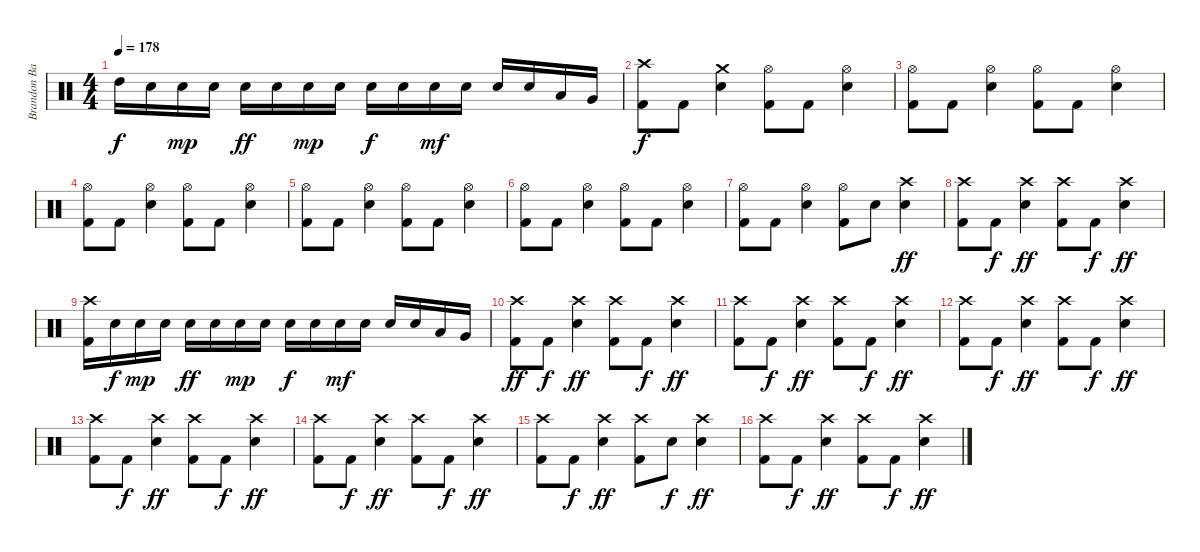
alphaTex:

\track ("Brandon Barnes - Drums" "Brandon Ba") {instrument percussion}
\staff {score}
\articulation defaults
\ts (4 4)
\tempo 178
\clef neutral
\ks c "High Tom (hit)".16{dy f} "Snare (hit) 2".16 "Snare (hit) 2".16{dy mp} "Snare (hit) 2".16 "Snare (hit) 2".16{dy ff} "Snare (hit) 2".16 "Snare (hit) 2".16{dy mp} "Snare (hit) 2".16 "Snare (hit) 2".16{dy f} "Snare (hit) 2".16 "Snare (hit) 2".16{dy mf} "Snare (hit) 2".16 "Snare (hit) 2".16 "Snare (hit) 2".16 "Low Tom (hit)".16 "Very Low Tom (hit)".16
|
("Crash high (hit)" "Kick (hit) 2").8{dy f} "Kick (hit) 2".8 ("Snare (hit) 2" "Crash medium (hit)").4 ("Hi-Hat (open)" "Kick (hit) 2").8 "Kick (hit) 2".8 ("Snare (hit) 2" "Hi-Hat (open)").4 |
("Hi-Hat (open)" "Kick (hit) 2").8 "Kick (hit) 2".8 ("Snare (hit) 2" "Hi-Hat (open)").4 ("Hi-Hat (open)" "Kick (hit) 2").8 "Kick (hit) 2".8 ("Snare (hit) 2" "Hi-Hat (open)").4 |
("Hi-Hat (open)" "Kick (hit) 2").8 "Kick (hit) 2".8 ("Snare (hit) 2" "Hi-Hat (open)").4 ("Hi-Hat (open)" "Kick (hit) 2").8 "Kick (hit) 2".8 ("Snare (hit) 2" "Hi-Hat (open)").4 |
("Hi-Hat (open)" "Kick (hit) 2").8 "Kick (hit) 2".8 ("Snare (hit) 2" "Hi-Hat (open)").4 ("Hi-Hat (open)" "Kick (hit) 2").8 "Kick (hit) 2".8 ("Snare (hit) 2" "Hi-Hat (open)").4 |
("Hi-Hat (open)" "Kick (hit) 2").8 "Kick (hit) 2".8 ("Snare (hit) 2" "Hi-Hat (open)").4 ("Hi-Hat (open)" "Kick (hit) 2").8 "Kick (hit) 2".8 ("Snare (hit) 2" "Hi-Hat (open)").4 |
("Hi-Hat (open)" "Kick (hit) 2").8 "Kick (hit) 2".8 ("Snare (hit) 2" "Hi-Hat (open)").4 ("Hi-Hat (open)" "Kick (hit) 2").8 "Snare (hit) 2".8 ("Snare (hit) 2" "Crash high (hit)").4{dy ff} |
("Crash high (hit)" "Kick (hit) 2").8 "Kick (hit) 2".8{dy f} ("Snare (hit) 2" "Crash high (hit)").4{dy ff} ("Crash high (hit)" "Kick (hit) 2").8 "Kick (hit) 2".8{dy f} ("Snare (hit) 2" "Crash high (hit)").4{dy ff} |
("Crash high (hit)" "Kick (hit) 2").16 "Snare (hit) 2".16{dy f} "Snare (hit) 2".16{dy mp} "Snare (hit) 2".16 "Snare (hit) 2".16{dy ff} "Snare (hit) 2".16 "Snare (hit) 2".16{dy mp} "Snare (hit) 2".16 "Snare (hit) 2".16{dy f} "Snare (hit) 2".16 "Snare (hit) 2".16{dy mf} "Snare (hit) 2".16 "Snare (hit) 2".16 "Snare (hit) 2".16 "Low Tom (hit)".16 "Very Low Tom (hit)".16 |
("Crash high (hit)" "Kick (hit) 2").8{dy ff} "Kick (hit) 2".8{dy f} ("Snare (hit) 2" "Crash high (hit)").4{dy ff} ("Crash high (hit)" "Kick (hit) 2").8 "Kick (hit) 2".8{dy f} ("Snare (hit) 2" "Crash high (hit)").4{dy ff} |
("Crash high (hit)" "Kick (hit) 2").8 "Kick (hit) 2".8{dy f} ("Snare (hit) 2" "Crash high (hit)").4{dy ff} ("Crash high (hit)" "Kick (hit) 2").8 "Kick (hit) 2".8{dy f} ("Snare (hit) 2" "Crash high (hit)").4{dy ff} |
("Crash high (hit)" "Kick (hit) 2").8 "Kick (hit) 2".8{dy f} ("Snare (hit) 2" "Crash high (hit)").4{dy ff} ("Crash high (hit)" "Kick (hit) 2").8 "Kick (hit) 2".8{dy f} ("Snare (hit) 2" "Crash high (hit)").4{dy ff} |
("Crash high (hit)" "Kick (hit) 2").8 "Kick (hit) 2".8{dy f} ("Snare (hit) 2" "Crash high (hit)").4{dy ff} ("Crash high (hit)" "Kick (hit) 2").8 "Kick (hit) 2".8{dy f} ("Snare (hit) 2" "Crash high (hit)").4{dy ff} |
("Crash high (hit)" "Kick (hit) 2").8 "Kick (hit) 2".8{dy f} ("Snare (hit) 2" "Crash high (hit)").4{dy ff} ("Crash high (hit)" "Kick (hit) 2").8 "Kick (hit) 2".8{dy f} ("Snare (hit) 2" "Crash high (hit)").4{dy ff} |
("Crash high (hit)" "Kick (hit) 2").8 "Kick (hit) 2".8{dy f} ("Snare (hit) 2" "Crash high (hit)").4{dy ff} ("Crash high (hit)" "Kick (hit) 2").8 "Snare (hit) 2".8{dy f} ("Snare (hit) 2" "Crash high (hit)").4{dy ff} |
("Crash high (hit)" "Kick (hit) 2").8 "Kick (hit) 2".8{dy f} ("Snare (hit) 2" "Crash high (hit)").4{dy ff} ("Crash high (hit)" "Kick (hit) 2").8 "Kick (hit) 2".8{dy f} ("Snare (hit) 2" "Crash high (hit)").4{dy ff}
